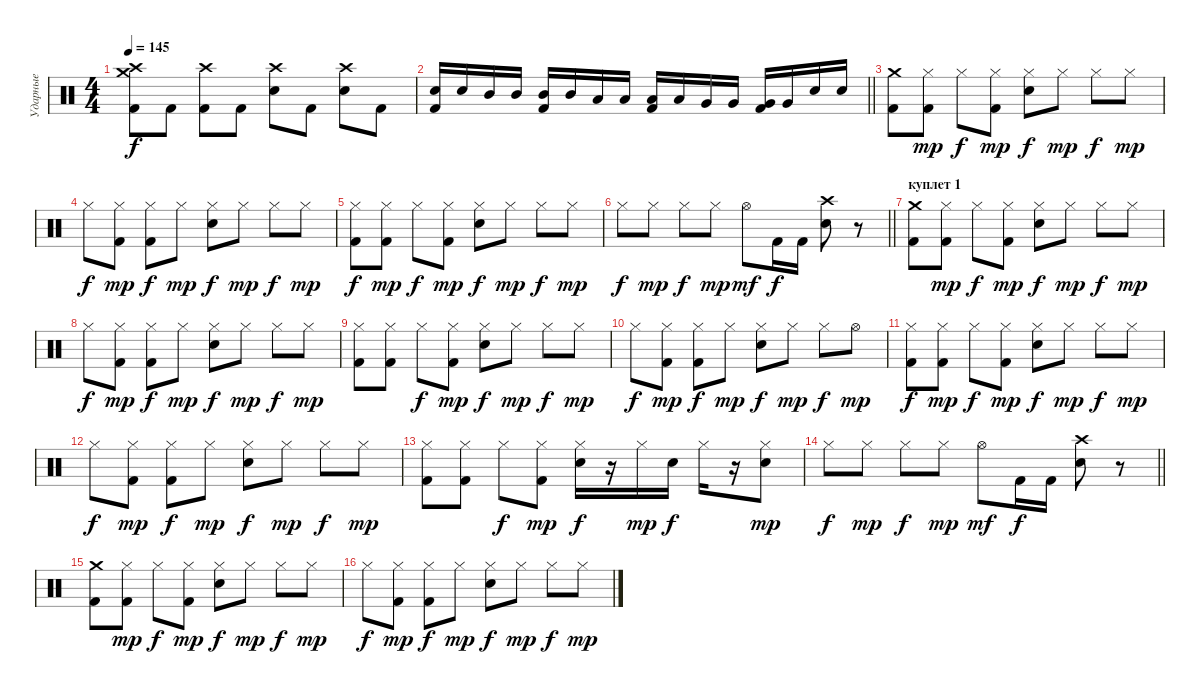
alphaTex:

\track ("Ударные" "Ударные") {instrument percussion}
\staff {score}
\articulation defaults
\ts (4 4)
\tempo 145
\clef neutral
\ks c
("Crash medium (hit)" "Crash high (hit)" "Kick (hit) 2").8{dy f} "Kick (hit) 2".8 ("Crash high (hit)" "Kick (hit) 2").8 "Kick (hit) 2".8 ("Crash high (hit)" "Electric Snare (hit)").8 "Kick (hit) 2".8 ("Crash high (hit)" "Electric Snare (hit)").8 "Kick (hit) 2".8 |
\barLineRight lightlight
("Electric Snare (hit)" "Kick (hit) 2").16 "Electric Snare (hit)".16 "Mid Tom (hit)".16 "Mid Tom (hit)".16 ("Mid Tom (hit)" "Kick (hit) 2").16 "Mid Tom (hit)".16 "Low Tom (hit)".16 "Low Tom (hit)".16 ("Low Tom (hit)" "Kick (hit) 2").16 "Low Tom (hit)".16 "Very Low Tom (hit)".16 "Very Low Tom (hit)".16 ("Very Low Tom (hit)" "Kick (hit) 2").16 "Very Low Tom (hit)".16 "Electric Snare (hit)".16 "Electric Snare (hit)".16 |
\section ("" "")
("Crash medium (hit)" "Kick (hit) 2").8 ("Hi-Hat (closed)" "Kick (hit) 2").8{dy mp} "Hi-Hat (closed)".8{dy f} ("Hi-Hat (closed)" "Kick (hit) 2").8{dy mp} ("Hi-Hat (closed)" "Electric Snare (hit)").8{dy f} "Hi-Hat (closed)".8{dy mp} "Hi-Hat (closed)".8{dy f} "Hi-Hat (closed)".8{dy mp} |
"Hi-Hat (closed)".8{dy f} ("Hi-Hat (closed)" "Kick (hit) 2").8{dy mp} ("Hi-Hat (closed)" "Kick (hit) 2").8{dy f} "Hi-Hat (closed)".8{dy mp} ("Hi-Hat (closed)" "Electric Snare (hit)").8{dy f} "Hi-Hat (closed)".8{dy mp} "Hi-Hat (closed)".8{dy f} "Hi-Hat (closed)".8{dy mp} |
("Hi-Hat (closed)" "Kick (hit) 2").8{dy f} ("Hi-Hat (closed)" "Kick (hit) 2").8{dy mp} "Hi-Hat (closed)".8{dy f} ("Hi-Hat (closed)" "Kick (hit) 2").8{dy mp} ("Hi-Hat (closed)" "Electric Snare (hit)").8{dy f} "Hi-Hat (closed)".8{dy mp} "Hi-Hat (closed)".8{dy f} "Hi-Hat (closed)".8{dy mp} |
\barLineRight lightlight "Hi-Hat (closed)".8{dy f} "Hi-Hat (closed)".8{dy mp} "Hi-Hat (closed)".8{dy f} "Hi-Hat (closed)".8{dy mp} "Hi-Hat (open)".8{dy mf} "Kick (hit) 2".16{dy f} "Kick (hit) 2".16
("Crash high (hit)" "Electric Snare (hit)").8 r.8 |
\section ("" "куплет 1")
("Crash medium (hit)" "Kick (hit) 2").8 ("Hi-Hat (closed)" "Kick (hit) 2").8{dy mp} "Hi-Hat (closed)".8{dy f} ("Hi-Hat (closed)" "Kick (hit) 2").8{dy mp} ("Hi-Hat (closed)" "Electric Snare (hit)").8{dy f} "Hi-Hat (closed)".8{dy mp} "Hi-Hat (closed)".8{dy f} "Hi-Hat (closed)".8{dy mp} |
"Hi-Hat (closed)".8{dy f} ("Hi-Hat (closed)" "Kick (hit) 2").8{dy mp} ("Hi-Hat (closed)" "Kick (hit) 2").8{dy f} "Hi-Hat (closed)".8{dy mp} ("Hi-Hat (closed)" "Electric Snare (hit)").8{dy f} "Hi-Hat (closed)".8{dy mp} "Hi-Hat (closed)".8{dy f} "Hi-Hat (closed)".8{dy mp} |
("Hi-Hat (closed)" "Kick (hit) 2").8 ("Hi-Hat (closed)" "Kick (hit) 2").8 "Hi-Hat (closed)".8{dy f} ("Hi-Hat (closed)" "Kick (hit) 2").8{dy mp} ("Hi-Hat (closed)" "Electric Snare (hit)").8{dy f} "Hi-Hat (closed)".8{dy mp} "Hi-Hat (closed)".8{dy f} "Hi-Hat (closed)".8{dy mp} |
"Hi-Hat (closed)".8{dy f} ("Hi-Hat (closed)" "Kick (hit) 2").8{dy mp} ("Hi-Hat (closed)" "Kick (hit) 2").8{dy f} "Hi-Hat (closed)".8{dy mp} ("Hi-Hat (closed)" "Electric Snare (hit)").8{dy f} "Hi-Hat (closed)".8{dy mp} "Hi-Hat (closed)".8{dy f} "Hi-Hat (open)".8{dy mp} |
("Hi-Hat (closed)" "Kick (hit) 2").8{dy f} ("Hi-Hat (closed)" "Kick (hit) 2").8{dy mp} "Hi-Hat (closed)".8{dy f} ("Hi-Hat (closed)" "Kick (hit) 2").8{dy mp} ("Hi-Hat (closed)" "Electric Snare (hit)").8{dy f} "Hi-Hat (closed)".8{dy mp} "Hi-Hat (closed)".8{dy f} "Hi-Hat (closed)".8{dy mp} |
"Hi-Hat (closed)".8{dy f} ("Hi-Hat (closed)" "Kick (hit) 2").8{dy mp} ("Hi-Hat (closed)" "Kick (hit) 2").8{dy f} "Hi-Hat (closed)".8{dy mp} ("Hi-Hat (closed)" "Electric Snare (hit)").8{dy f} "Hi-Hat (closed)".8{dy mp} "Hi-Hat (closed)".8{dy f} "Hi-Hat (closed)".8{dy mp} |
("Hi-Hat (closed)" "Kick (hit) 2").8 ("Hi-Hat (closed)" "Kick (hit) 2").8 "Hi-Hat (closed)".8{dy f} ("Hi-Hat (closed)" "Kick (hit) 2").8{dy mp} ("Hi-Hat (closed)" "Electric Snare (hit)").16{dy f} r.16 "Hi-Hat (closed)".16{dy mp} "Electric Snare (hit)".16{dy f} "Hi-Hat (closed)".16 r.16 ("Hi-Hat (closed)" "Electric Snare (hit)").8{dy mp} |
\barLineRight lightlight "Hi-Hat (closed)".8{dy f} "Hi-Hat (closed)".8{dy mp} "Hi-Hat (closed)".8{dy f} "Hi-Hat (closed)".8{dy mp} "Hi-Hat (open)".8{dy mf} "Kick (hit) 2".16{dy f} "Kick (hit) 2".16
("Crash high (hit)" "Electric Snare (hit)").8 r.8 |
("Crash medium (hit)" "Kick (hit) 2").8 ("Hi-Hat (closed)" "Kick (hit) 2").8{dy mp} "Hi-Hat (closed)".8{dy f} ("Hi-Hat (closed)" "Kick (hit) 2").8{dy mp} ("Hi-Hat (closed)" "Electric Snare (hit)").8{dy f} "Hi-Hat (closed)".8{dy mp} "Hi-Hat (closed)".8{dy f} "Hi-Hat (closed)".8{dy mp} |
"Hi-Hat (closed)".8{dy f} ("Hi-Hat (closed)" "Kick (hit) 2").8{dy mp} ("Hi-Hat (closed)" "Kick (hit) 2").8{dy f} "Hi-Hat (closed)".8{dy mp} ("Hi-Hat (closed)" "Electric Snare (hit)").8{dy f} "Hi-Hat (closed)".8{dy mp} "Hi-Hat (closed)".8{dy f} "Hi-Hat (closed)".8{dy mp}
